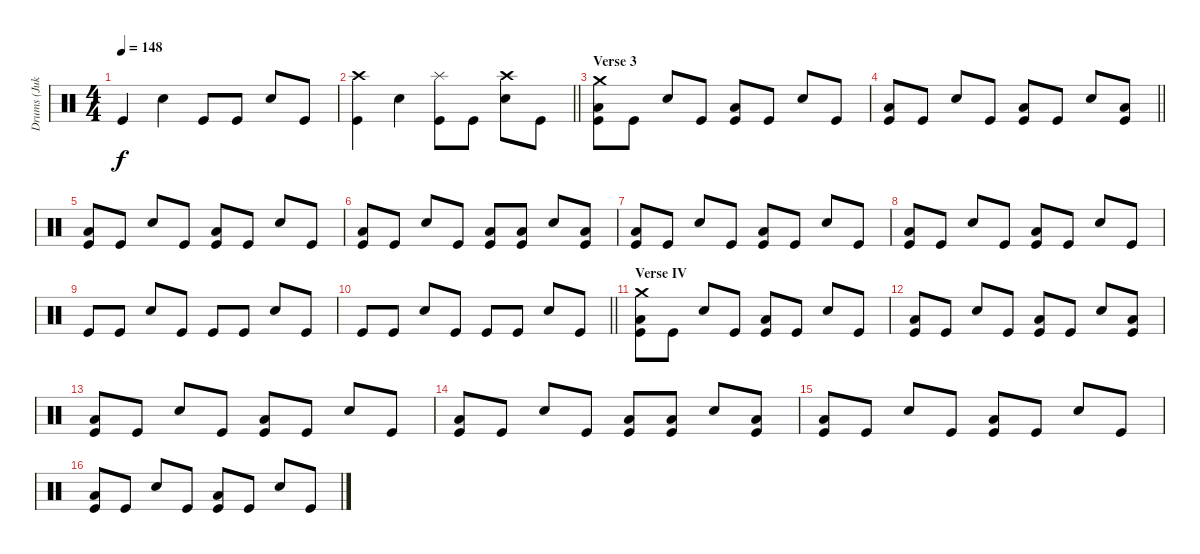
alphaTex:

\track ("Drums (Jukka)" "Drums (Juk") {instrument percussion}
\staff {score}
\articulation defaults
\ts (4 4)
\tempo 148
\clef neutral
\ks c "Kick (hit)".4{dy f} "Snare (hit) 2".4 "Kick (hit)".8 "Kick (hit)".8 "Snare (hit) 2".8 "Kick (hit)".8
|
\barLineRight lightlight
("Kick (hit)" "Crash high (hit)").4 "Snare (hit) 2".4 ("Kick (hit)" "Splash (hit)").8 "Kick (hit)".8 ("Snare (hit) 2" "Crash high (hit)").8 "Kick (hit)".8 |
\section ("" "Verse 3")
("Kick (hit)" "Low Floor Tom (hit)" "Crash medium (hit)").8 "Kick (hit)".8 "Snare (hit) 2".8 "Kick (hit)".8 ("Kick (hit)" "Low Floor Tom (hit)").8 "Kick (hit)".8 "Snare (hit) 2".8 "Kick (hit)".8 |
\barLineRight lightlight
("Kick (hit)" "Low Floor Tom (hit)").8 "Kick (hit)".8 "Snare (hit) 2".8 "Kick (hit)".8 ("Kick (hit)" "Low Floor Tom (hit)").8 "Kick (hit)".8 "Snare (hit) 2".8 ("Kick (hit)" "Low Floor Tom (hit)").8 |
("Kick (hit)" "Low Floor Tom (hit)").8 "Kick (hit)".8 "Snare (hit) 2".8 "Kick (hit)".8 ("Kick (hit)" "Low Floor Tom (hit)").8 "Kick (hit)".8 "Snare (hit) 2".8 "Kick (hit)".8 |
("Kick (hit)" "Low Floor Tom (hit)").8 "Kick (hit)".8 "Snare (hit) 2".8 "Kick (hit)".8 ("Kick (hit)" "Low Floor Tom (hit)").8 ("Kick (hit)" "Low Floor Tom (hit)").8 "Snare (hit) 2".8 ("Kick (hit)" "Low Floor Tom (hit)").8 |
("Kick (hit)" "Low Floor Tom (hit)").8 "Kick (hit)".8 "Snare (hit) 2".8 "Kick (hit)".8 ("Kick (hit)" "Low Floor Tom (hit)").8 "Kick (hit)".8 "Snare (hit) 2".8 "Kick (hit)".8 |
("Kick (hit)" "Low Floor Tom (hit)").8 "Kick (hit)".8 "Snare (hit) 2".8 "Kick (hit)".8 ("Kick (hit)" "Low Floor Tom (hit)").8 "Kick (hit)".8 "Snare (hit) 2".8 "Kick (hit)".8 |
"Kick (hit)".8 "Kick (hit)".8 "Snare (hit) 2".8 "Kick (hit)".8 "Kick (hit)".8 "Kick (hit)".8 "Snare (hit) 2".8 "Kick (hit)".8 |
\barLineRight lightlight "Kick (hit)".8 "Kick (hit)".8 "Snare (hit) 2".8 "Kick (hit)".8 "Kick (hit)".8 "Kick (hit)".8 "Snare (hit) 2".8 "Kick (hit)".8
|
\section ("" "Verse IV")
("Kick (hit)" "Low Floor Tom (hit)" "Crash medium (hit)").8 "Kick (hit)".8 "Snare (hit) 2".8 "Kick (hit)".8 ("Kick (hit)" "Low Floor Tom (hit)").8 "Kick (hit)".8 "Snare (hit) 2".8 "Kick (hit)".8 |
("Kick (hit)" "Low Floor Tom (hit)").8 "Kick (hit)".8 "Snare (hit) 2".8 "Kick (hit)".8 ("Kick (hit)" "Low Floor Tom (hit)").8 "Kick (hit)".8 "Snare (hit) 2".8 ("Kick (hit)" "Low Floor Tom (hit)").8 |
("Kick (hit)" "Low Floor Tom (hit)").8 "Kick (hit)".8 "Snare (hit) 2".8 "Kick (hit)".8 ("Kick (hit)" "Low Floor Tom (hit)").8 "Kick (hit)".8 "Snare (hit) 2".8 "Kick (hit)".8 |
("Kick (hit)" "Low Floor Tom (hit)").8 "Kick (hit)".8 "Snare (hit) 2".8 "Kick (hit)".8 ("Kick (hit)" "Low Floor Tom (hit)").8 ("Kick (hit)" "Low Floor Tom (hit)").8 "Snare (hit) 2".8 ("Kick (hit)" "Low Floor Tom (hit)").8 |
("Kick (hit)" "Low Floor Tom (hit)").8 "Kick (hit)".8 "Snare (hit) 2".8 "Kick (hit)".8 ("Kick (hit)" "Low Floor Tom (hit)").8 "Kick (hit)".8 "Snare (hit) 2".8 "Kick (hit)".8 |
("Kick (hit)" "Low Floor Tom (hit)").8 "Kick (hit)".8 "Snare (hit) 2".8 "Kick (hit)".8 ("Kick (hit)" "Low Floor Tom (hit)").8 "Kick (hit)".8 "Snare (hit) 2".8 "Kick (hit)".8
